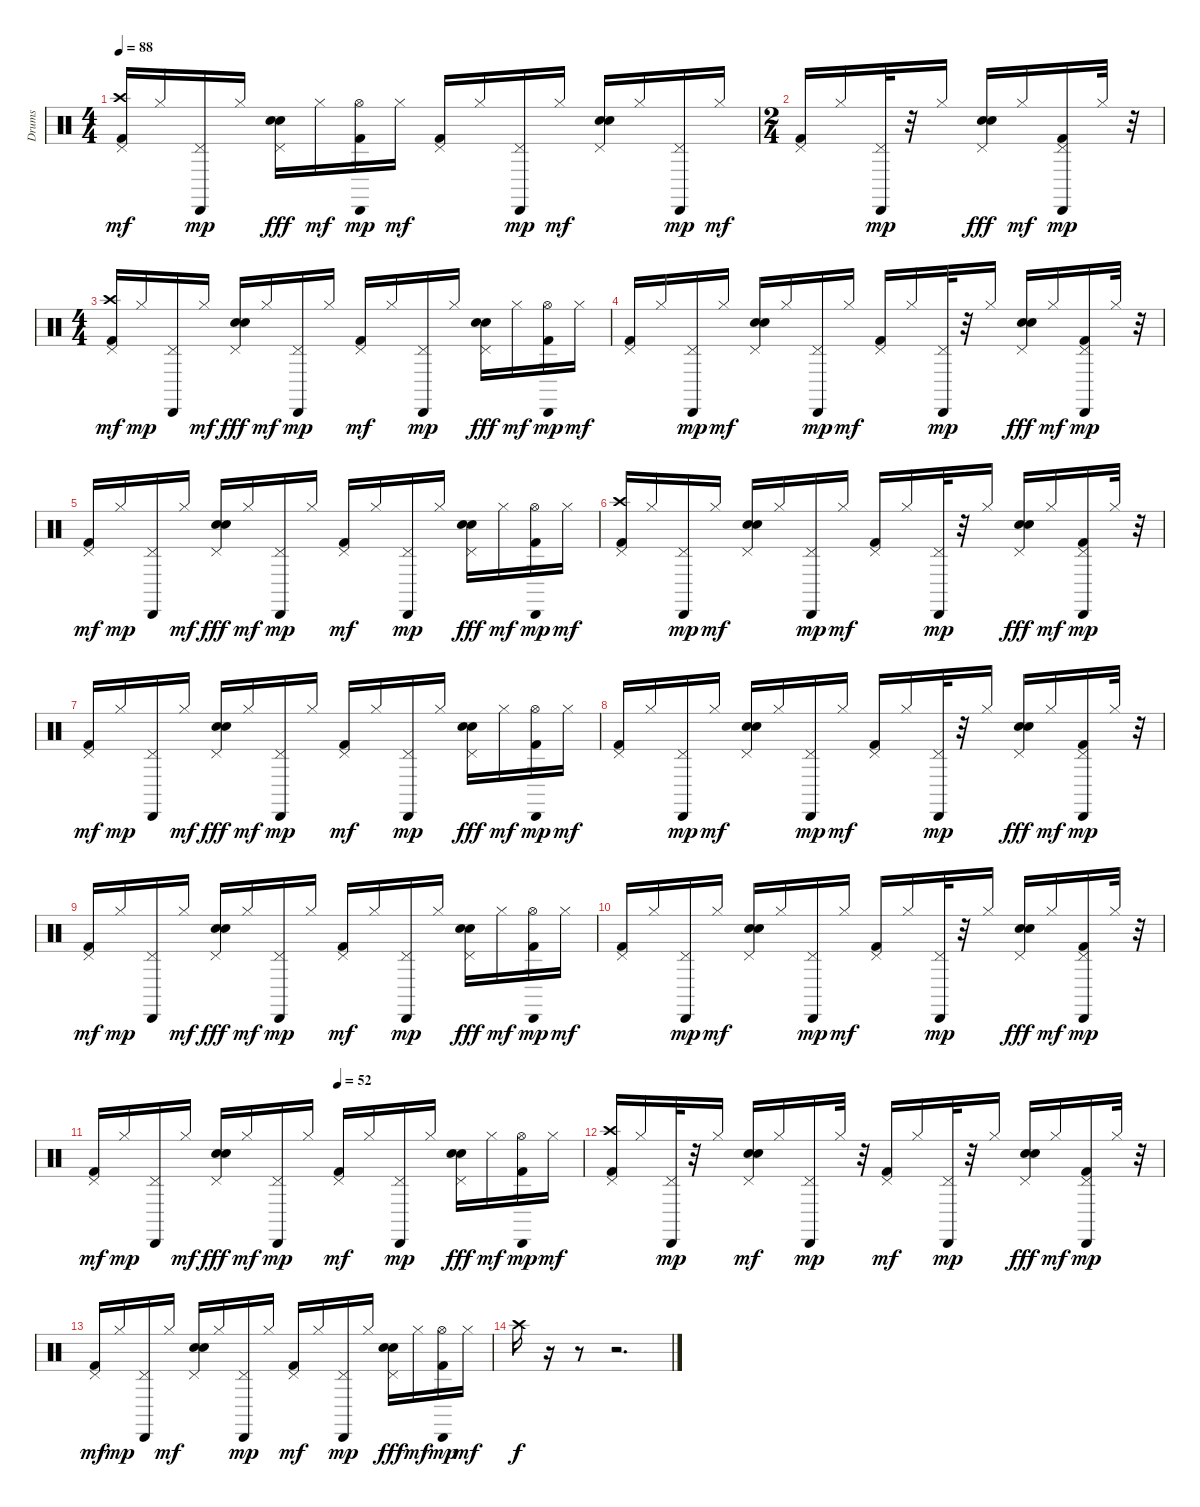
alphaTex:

\track ("Drums" "Drums") {instrument percussion}
\staff {score}
\articulation defaults
\ts (4 4)
\tempo 88
\clef neutral
\ks c
("Pedal Hi-Hat (hit)" "Crash high (hit)" "Kick (hit) 2").16{dy mf} "Hi-Hat (closed)".16 ("Pedal Hi-Hat (hit)" "Cabasa (hit)").16{dy mp} "Hi-Hat (closed)".16 ("Pedal Hi-Hat (hit)" "Snare (hit) 2" "Electric Snare (hit)").16{dy fff} "Hi-Hat (closed)".16{dy mf} ("Hi-Hat (open)" "Cabasa (hit)" "Kick (hit) 2").16{dy mp} "Hi-Hat (closed)".16{dy mf} ("Kick (hit) 2" "Pedal Hi-Hat (hit)").16 "Hi-Hat (closed)".16 ("Pedal Hi-Hat (hit)" "Cabasa (hit)").16{dy mp} "Hi-Hat (closed)".16{dy mf} ("Snare (hit) 2" "Electric Snare (hit)" "Pedal Hi-Hat (hit)").16 "Hi-Hat (closed)".16 ("Pedal Hi-Hat (hit)" "Cabasa (hit)").16{dy mp} "Hi-Hat (closed)".16{dy mf} |
\ts (2 4)
("Pedal Hi-Hat (hit)" "Kick (hit) 2").16 "Hi-Hat (closed)".16 ("Pedal Hi-Hat (hit)" "Cabasa (hit)").32{dy mp} r.32 "Hi-Hat (closed)".16 ("Pedal Hi-Hat (hit)" "Snare (hit) 2" "Electric Snare (hit)").16{dy fff} "Hi-Hat (closed)".16{dy mf} ("Pedal Hi-Hat (hit)" "Cabasa (hit)" "Kick (hit) 2").16{dy mp} "Hi-Hat (closed)".32 r.32 |
\ts (4 4)
("Pedal Hi-Hat (hit)" "Crash high (hit)" "Kick (hit) 2").16{dy mf} "Hi-Hat (closed)".16{dy mp} ("Pedal Hi-Hat (hit)" "Cabasa (hit)").16 "Hi-Hat (closed)".16{dy mf} ("Pedal Hi-Hat (hit)" "Snare (hit) 2" "Electric Snare (hit)").16{dy fff} "Hi-Hat (closed)".16{dy mf} ("Pedal Hi-Hat (hit)" "Cabasa (hit)").16{dy mp} "Hi-Hat (closed)".16 ("Pedal Hi-Hat (hit)" "Kick (hit) 2").16{dy mf} "Hi-Hat (closed)".16 ("Pedal Hi-Hat (hit)" "Cabasa (hit)").16{dy mp} "Hi-Hat (closed)".16 ("Pedal Hi-Hat (hit)" "Snare (hit) 2" "Electric Snare (hit)").16{dy fff} "Hi-Hat (closed)".16{dy mf} ("Hi-Hat (open)" "Cabasa (hit)" "Kick (hit) 2").16{dy mp} "Hi-Hat (closed)".16{dy mf} |
("Kick (hit) 2" "Pedal Hi-Hat (hit)").16 "Hi-Hat (closed)".16 ("Pedal Hi-Hat (hit)" "Cabasa (hit)").16{dy mp} "Hi-Hat (closed)".16{dy mf} ("Snare (hit) 2" "Electric Snare (hit)" "Pedal Hi-Hat (hit)").16 "Hi-Hat (closed)".16 ("Pedal Hi-Hat (hit)" "Cabasa (hit)").16{dy mp} "Hi-Hat (closed)".16{dy mf} ("Pedal Hi-Hat (hit)" "Kick (hit) 2").16 "Hi-Hat (closed)".16 ("Pedal Hi-Hat (hit)" "Cabasa (hit)").32{dy mp} r.32 "Hi-Hat (closed)".16 ("Pedal Hi-Hat (hit)" "Snare (hit) 2" "Electric Snare (hit)").16{dy fff} "Hi-Hat (closed)".16{dy mf} ("Pedal Hi-Hat (hit)" "Cabasa (hit)" "Kick (hit) 2").16{dy mp} "Hi-Hat (closed)".32 r.32 |
("Pedal Hi-Hat (hit)" "Kick (hit) 2").16{dy mf} "Hi-Hat (closed)".16{dy mp} ("Pedal Hi-Hat (hit)" "Cabasa (hit)").16 "Hi-Hat (closed)".16{dy mf} ("Pedal Hi-Hat (hit)" "Snare (hit) 2" "Electric Snare (hit)").16{dy fff} "Hi-Hat (closed)".16{dy mf} ("Pedal Hi-Hat (hit)" "Cabasa (hit)").16{dy mp} "Hi-Hat (closed)".16 ("Pedal Hi-Hat (hit)" "Kick (hit) 2").16{dy mf} "Hi-Hat (closed)".16 ("Pedal Hi-Hat (hit)" "Cabasa (hit)").16{dy mp} "Hi-Hat (closed)".16 ("Pedal Hi-Hat (hit)" "Snare (hit) 2" "Electric Snare (hit)").16{dy fff} "Hi-Hat (closed)".16{dy mf} ("Hi-Hat (open)" "Cabasa (hit)" "Kick (hit) 2").16{dy mp} "Hi-Hat (closed)".16{dy mf} |
("Kick (hit) 2" "Crash high (hit)" "Pedal Hi-Hat (hit)").16 "Hi-Hat (closed)".16 ("Pedal Hi-Hat (hit)" "Cabasa (hit)").16{dy mp} "Hi-Hat (closed)".16{dy mf} ("Snare (hit) 2" "Electric Snare (hit)" "Pedal Hi-Hat (hit)").16 "Hi-Hat (closed)".16 ("Pedal Hi-Hat (hit)" "Cabasa (hit)").16{dy mp} "Hi-Hat (closed)".16{dy mf} ("Pedal Hi-Hat (hit)" "Kick (hit) 2").16 "Hi-Hat (closed)".16 ("Pedal Hi-Hat (hit)" "Cabasa (hit)").32{dy mp} r.32 "Hi-Hat (closed)".16 ("Pedal Hi-Hat (hit)" "Snare (hit) 2" "Electric Snare (hit)").16{dy fff} "Hi-Hat (closed)".16{dy mf} ("Pedal Hi-Hat (hit)" "Cabasa (hit)" "Kick (hit) 2").16{dy mp} "Hi-Hat (closed)".32 r.32 |
("Pedal Hi-Hat (hit)" "Kick (hit) 2").16{dy mf} "Hi-Hat (closed)".16{dy mp} ("Pedal Hi-Hat (hit)" "Cabasa (hit)").16 "Hi-Hat (closed)".16{dy mf} ("Pedal Hi-Hat (hit)" "Snare (hit) 2" "Electric Snare (hit)").16{dy fff} "Hi-Hat (closed)".16{dy mf} ("Pedal Hi-Hat (hit)" "Cabasa (hit)").16{dy mp} "Hi-Hat (closed)".16 ("Pedal Hi-Hat (hit)" "Kick (hit) 2").16{dy mf} "Hi-Hat (closed)".16 ("Pedal Hi-Hat (hit)" "Cabasa (hit)").16{dy mp} "Hi-Hat (closed)".16 ("Pedal Hi-Hat (hit)" "Snare (hit) 2" "Electric Snare (hit)").16{dy fff} "Hi-Hat (closed)".16{dy mf} ("Hi-Hat (open)" "Cabasa (hit)" "Kick (hit) 2").16{dy mp} "Hi-Hat (closed)".16{dy mf} |
("Kick (hit) 2" "Pedal Hi-Hat (hit)").16 "Hi-Hat (closed)".16 ("Pedal Hi-Hat (hit)" "Cabasa (hit)").16{dy mp} "Hi-Hat (closed)".16{dy mf} ("Snare (hit) 2" "Electric Snare (hit)" "Pedal Hi-Hat (hit)").16 "Hi-Hat (closed)".16 ("Pedal Hi-Hat (hit)" "Cabasa (hit)").16{dy mp} "Hi-Hat (closed)".16{dy mf} ("Pedal Hi-Hat (hit)" "Kick (hit) 2").16 "Hi-Hat (closed)".16 ("Pedal Hi-Hat (hit)" "Cabasa (hit)").32{dy mp} r.32 "Hi-Hat (closed)".16 ("Pedal Hi-Hat (hit)" "Snare (hit) 2" "Electric Snare (hit)").16{dy fff} "Hi-Hat (closed)".16{dy mf} ("Pedal Hi-Hat (hit)" "Cabasa (hit)" "Kick (hit) 2").16{dy mp} "Hi-Hat (closed)".32 r.32 |
("Pedal Hi-Hat (hit)" "Kick (hit) 2").16{dy mf} "Hi-Hat (closed)".16{dy mp} ("Pedal Hi-Hat (hit)" "Cabasa (hit)").16 "Hi-Hat (closed)".16{dy mf} ("Pedal Hi-Hat (hit)" "Snare (hit) 2" "Electric Snare (hit)").16{dy fff} "Hi-Hat (closed)".16{dy mf} ("Pedal Hi-Hat (hit)" "Cabasa (hit)").16{dy mp} "Hi-Hat (closed)".16 ("Pedal Hi-Hat (hit)" "Kick (hit) 2").16{dy mf} "Hi-Hat (closed)".16 ("Pedal Hi-Hat (hit)" "Cabasa (hit)").16{dy mp} "Hi-Hat (closed)".16 ("Pedal Hi-Hat (hit)" "Snare (hit) 2" "Electric Snare (hit)").16{dy fff} "Hi-Hat (closed)".16{dy mf} ("Hi-Hat (open)" "Cabasa (hit)" "Kick (hit) 2").16{dy mp} "Hi-Hat (closed)".16{dy mf} |
("Kick (hit) 2" "Pedal Hi-Hat (hit)").16 "Hi-Hat (closed)".16 ("Pedal Hi-Hat (hit)" "Cabasa (hit)").16{dy mp} "Hi-Hat (closed)".16{dy mf} ("Snare (hit) 2" "Electric Snare (hit)" "Pedal Hi-Hat (hit)").16 "Hi-Hat (closed)".16 ("Pedal Hi-Hat (hit)" "Cabasa (hit)").16{dy mp} "Hi-Hat (closed)".16{dy mf} ("Pedal Hi-Hat (hit)" "Kick (hit) 2").16 "Hi-Hat (closed)".16 ("Pedal Hi-Hat (hit)" "Cabasa (hit)").32{dy mp} r.32 "Hi-Hat (closed)".16 ("Pedal Hi-Hat (hit)" "Snare (hit) 2" "Electric Snare (hit)").16{dy fff} "Hi-Hat (closed)".16{dy mf} ("Pedal Hi-Hat (hit)" "Cabasa (hit)" "Kick (hit) 2").16{dy mp} "Hi-Hat (closed)".32 r.32 |
\tempo (52 0.5)
("Pedal Hi-Hat (hit)" "Kick (hit) 2").16{dy mf} "Hi-Hat (closed)".16{dy mp} ("Pedal Hi-Hat (hit)" "Cabasa (hit)").16 "Hi-Hat (closed)".16{dy mf} ("Pedal Hi-Hat (hit)" "Snare (hit) 2" "Electric Snare (hit)").16{dy fff} "Hi-Hat (closed)".16{dy mf} ("Pedal Hi-Hat (hit)" "Cabasa (hit)").16{dy mp} "Hi-Hat (closed)".16 ("Pedal Hi-Hat (hit)" "Kick (hit) 2").16{dy mf} "Hi-Hat (closed)".16 ("Pedal Hi-Hat (hit)" "Cabasa (hit)").16{dy mp} "Hi-Hat (closed)".16 ("Pedal Hi-Hat (hit)" "Snare (hit) 2" "Electric Snare (hit)").16{dy fff} "Hi-Hat (closed)".16{dy mf} ("Hi-Hat (open)" "Cabasa (hit)" "Kick (hit) 2").16{dy mp} "Hi-Hat (closed)".16{dy mf} |
("Kick (hit) 2" "Crash high (hit)" "Pedal Hi-Hat (hit)").16 "Hi-Hat (closed)".16 ("Pedal Hi-Hat (hit)" "Cabasa (hit)").32{dy mp} r.32 "Hi-Hat (closed)".16 ("Snare (hit) 2" "Electric Snare (hit)" "Pedal Hi-Hat (hit)").16{dy mf} "Hi-Hat (closed)".16 ("Pedal Hi-Hat (hit)" "Cabasa (hit)").16{dy mp} "Hi-Hat (closed)".32 r.32 ("Pedal Hi-Hat (hit)" "Kick (hit) 2").16{dy mf} "Hi-Hat (closed)".16 ("Pedal Hi-Hat (hit)" "Cabasa (hit)").32{dy mp} r.32 "Hi-Hat (closed)".16 ("Pedal Hi-Hat (hit)" "Snare (hit) 2" "Electric Snare (hit)").16{dy fff} "Hi-Hat (closed)".16{dy mf} ("Pedal Hi-Hat (hit)" "Cabasa (hit)" "Kick (hit) 2").16{dy mp} "Hi-Hat (closed)".32 r.32 |
("Kick (hit) 2" "Pedal Hi-Hat (hit)").16{dy mf} "Hi-Hat (closed)".16{dy mp} ("Pedal Hi-Hat (hit)" "Cabasa (hit)").16 "Hi-Hat (closed)".16{dy mf} ("Snare (hit) 2" "Electric Snare (hit)" "Pedal Hi-Hat (hit)").16 "Hi-Hat (closed)".16 ("Pedal Hi-Hat (hit)" "Cabasa (hit)").16{dy mp} "Hi-Hat (closed)".16 ("Pedal Hi-Hat (hit)" "Kick (hit) 2").16{dy mf} "Hi-Hat (closed)".16 ("Pedal Hi-Hat (hit)" "Cabasa (hit)").16{dy mp} "Hi-Hat (closed)".16 ("Pedal Hi-Hat (hit)" "Snare (hit) 2" "Electric Snare (hit)").16{dy fff} "Hi-Hat (closed)".16{dy mf} ("Hi-Hat (open)" "Cabasa (hit)" "Kick (hit) 2").16{dy mp} "Hi-Hat (closed)".16{dy mf} |
"Crash high (hit)".16{dy f} r.16 r.8 r.2{d}
